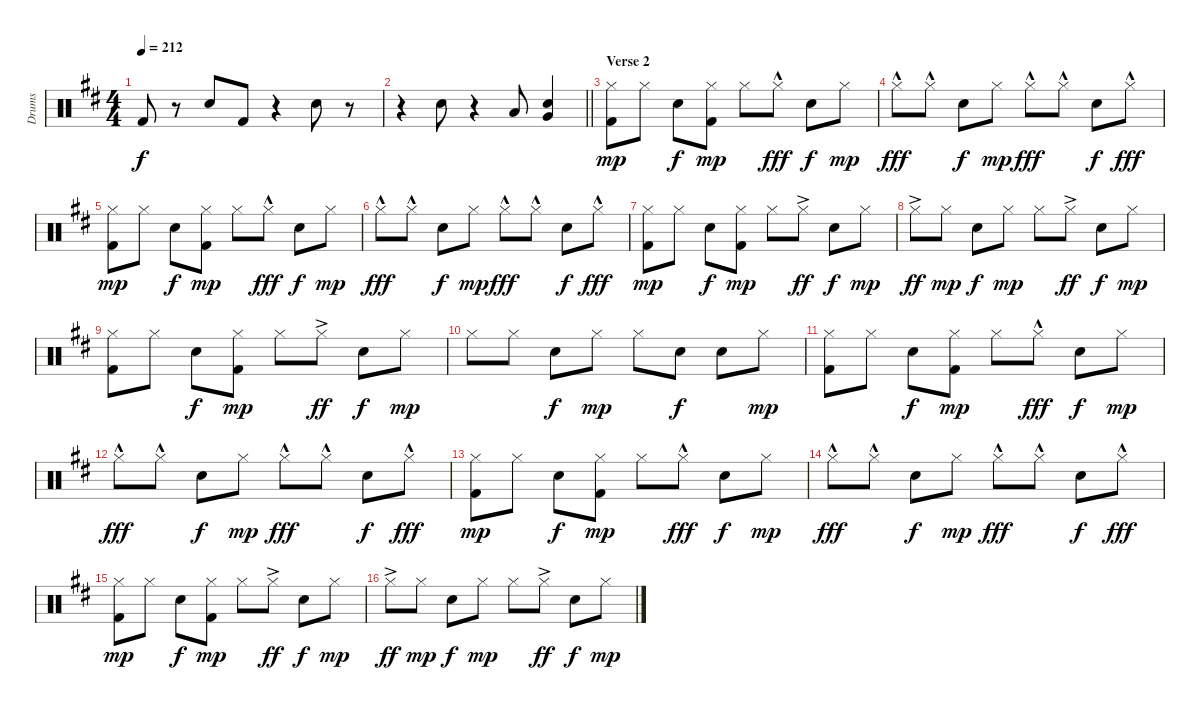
\track ("Drums" "Drums") {instrument percussion}
\staff {score}
\articulation defaults
\ts (4 4)
\tempo 212
\clef neutral
\ks d "Kick (hit) 2".8{dy f}
r.8 "Electric Snare (hit)".8 "Kick (hit) 2".8 r.4 "Electric Snare (hit)".8 r.8 |
\barLineRight lightlight
r.4 "Electric Snare (hit)".8 r.4 "Low Tom (hit)".8 ("Electric Snare (hit)" "Very Low Tom (hit)").4 |
\section ("" "Verse 2")
("Hi-Hat (closed)" "Kick (hit) 2").8{dy mp} "Hi-Hat (closed)".8 "Electric Snare (hit)".8{dy f} ("Hi-Hat (closed)" "Kick (hit) 2").8{dy mp} "Hi-Hat (closed)".8 "Hi-Hat (closed)"{hac}.8{dy fff} "Electric Snare (hit)".8{dy f} "Hi-Hat (closed)".8{dy mp} |
"Hi-Hat (closed)"{hac}.8{dy fff} "Hi-Hat (closed)"{hac}.8 "Electric Snare (hit)".8{dy f} "Hi-Hat (closed)".8{dy mp} "Hi-Hat (closed)"{hac}.8{dy fff} "Hi-Hat (closed)"{hac}.8 "Electric Snare (hit)".8{dy f} "Hi-Hat (closed)"{hac}.8{dy fff} |
("Hi-Hat (closed)" "Kick (hit) 2").8{dy mp} "Hi-Hat (closed)".8 "Electric Snare (hit)".8{dy f} ("Hi-Hat (closed)" "Kick (hit) 2").8{dy mp} "Hi-Hat (closed)".8 "Hi-Hat (closed)"{hac}.8{dy fff} "Electric Snare (hit)".8{dy f} "Hi-Hat (closed)".8{dy mp} |
"Hi-Hat (closed)"{hac}.8{dy fff} "Hi-Hat (closed)"{hac}.8 "Electric Snare (hit)".8{dy f} "Hi-Hat (closed)".8{dy mp} "Hi-Hat (closed)"{hac}.8{dy fff} "Hi-Hat (closed)"{hac}.8 "Electric Snare (hit)".8{dy f} "Hi-Hat (closed)"{hac}.8{dy fff} |
("Hi-Hat (closed)" "Kick (hit) 2").8{dy mp} "Hi-Hat (closed)".8 "Electric Snare (hit)".8{dy f} ("Hi-Hat (closed)" "Kick (hit) 2").8{dy mp} "Hi-Hat (closed)".8 "Hi-Hat (closed)"{ac}.8{dy ff} "Electric Snare (hit)".8{dy f} "Hi-Hat (closed)".8{dy mp} |
"Hi-Hat (closed)"{ac}.8{dy ff} "Hi-Hat (closed)".8{dy mp} "Electric Snare (hit)".8{dy f} "Hi-Hat (closed)".8{dy mp} "Hi-Hat (closed)".8 "Hi-Hat (closed)"{ac}.8{dy ff} "Electric Snare (hit)".8{dy f} "Hi-Hat (closed)".8{dy mp} |
("Hi-Hat (closed)" "Kick (hit) 2").8 "Hi-Hat (closed)".8 "Electric Snare (hit)".8{dy f} ("Hi-Hat (closed)" "Kick (hit) 2").8{dy mp} "Hi-Hat (closed)".8 "Hi-Hat (closed)"{ac}.8{dy ff} "Electric Snare (hit)".8{dy f} "Hi-Hat (closed)".8{dy mp} |
"Hi-Hat (closed)".8 "Hi-Hat (closed)".8 "Electric Snare (hit)".8{dy f} "Hi-Hat (closed)".8{dy mp} "Hi-Hat (closed)".8 "Electric Snare (hit)".8{dy f} "Electric Snare (hit)".8 "Hi-Hat (closed)".8{dy mp} |
("Hi-Hat (closed)" "Kick (hit) 2").8 "Hi-Hat (closed)".8 "Electric Snare (hit)".8{dy f} ("Hi-Hat (closed)" "Kick (hit) 2").8{dy mp} "Hi-Hat (closed)".8 "Hi-Hat (closed)"{hac}.8{dy fff} "Electric Snare (hit)".8{dy f} "Hi-Hat (closed)".8{dy mp} |
"Hi-Hat (closed)"{hac}.8{dy fff} "Hi-Hat (closed)"{hac}.8 "Electric Snare (hit)".8{dy f} "Hi-Hat (closed)".8{dy mp} "Hi-Hat (closed)"{hac}.8{dy fff} "Hi-Hat (closed)"{hac}.8 "Electric Snare (hit)".8{dy f} "Hi-Hat (closed)"{hac}.8{dy fff} |
("Hi-Hat (closed)" "Kick (hit) 2").8{dy mp} "Hi-Hat (closed)".8 "Electric Snare (hit)".8{dy f} ("Hi-Hat (closed)" "Kick (hit) 2").8{dy mp} "Hi-Hat (closed)".8 "Hi-Hat (closed)"{hac}.8{dy fff} "Electric Snare (hit)".8{dy f} "Hi-Hat (closed)".8{dy mp} |
"Hi-Hat (closed)"{hac}.8{dy fff} "Hi-Hat (closed)"{hac}.8 "Electric Snare (hit)".8{dy f} "Hi-Hat (closed)".8{dy mp} "Hi-Hat (closed)"{hac}.8{dy fff} "Hi-Hat (closed)"{hac}.8 "Electric Snare (hit)".8{dy f} "Hi-Hat (closed)"{hac}.8{dy fff} |
("Hi-Hat (closed)" "Kick (hit) 2").8{dy mp} "Hi-Hat (closed)".8 "Electric Snare (hit)".8{dy f} ("Hi-Hat (closed)" "Kick (hit) 2").8{dy mp} "Hi-Hat (closed)".8 "Hi-Hat (closed)"{ac}.8{dy ff} "Electric Snare (hit)".8{dy f} "Hi-Hat (closed)".8{dy mp} |
"Hi-Hat (closed)"{ac}.8{dy ff} "Hi-Hat (closed)".8{dy mp} "Electric Snare (hit)".8{dy f} "Hi-Hat (closed)".8{dy mp} "Hi-Hat (closed)".8 "Hi-Hat (closed)"{ac}.8{dy ff} "Electric Snare (hit)".8{dy f} "Hi-Hat (closed)".8{dy mp}
